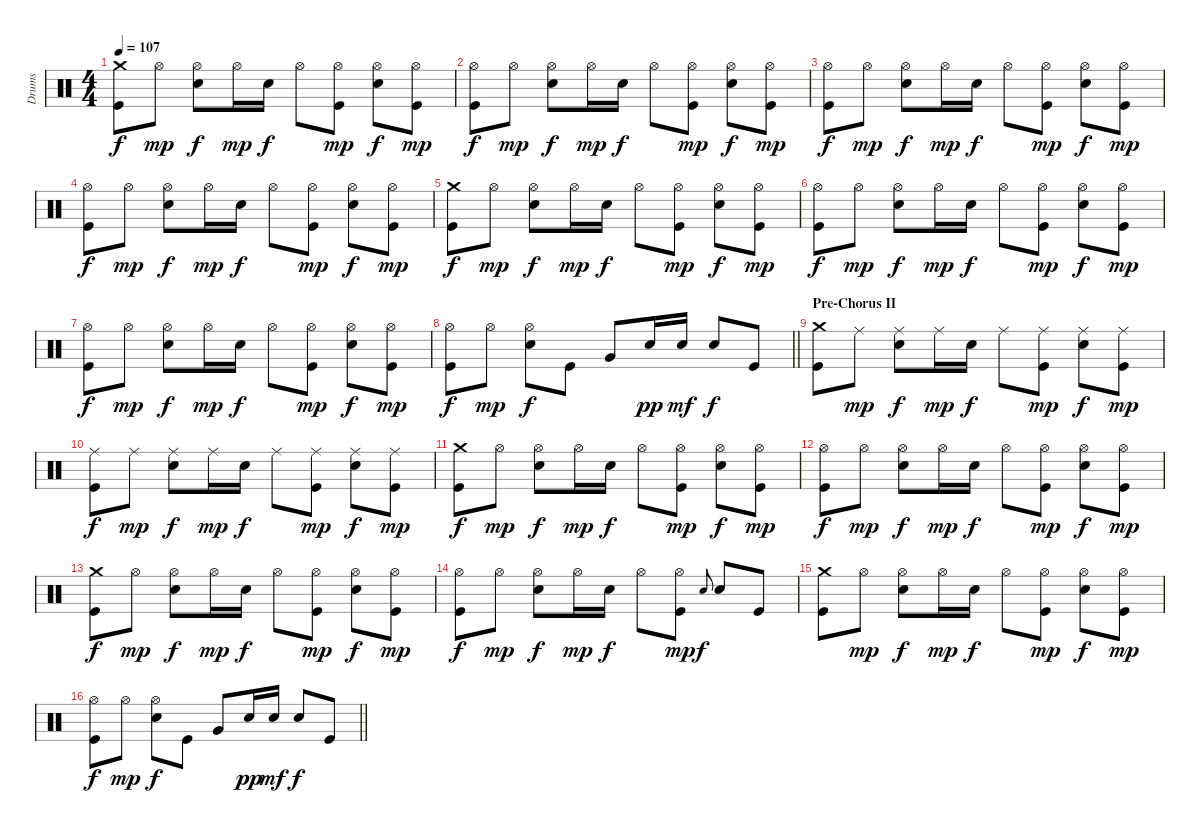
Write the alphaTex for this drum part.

\track ("Drums" "Drums") {instrument percussion}
\staff {score}
\articulation defaults
\ts (4 4)
\tempo 107
\clef neutral
\ks c
("Crash medium (hit)" "Kick (hit)").8{dy f} "Hi-Hat (open)".8{dy mp} ("Hi-Hat (open)" "Electric Snare (hit)").8{dy f} "Hi-Hat (open)".16{dy mp} "Electric Snare (hit)".16{dy f} "Hi-Hat (open)".8 ("Hi-Hat (open)" "Kick (hit)").8{dy mp} ("Hi-Hat (open)" "Electric Snare (hit)").8{dy f} ("Hi-Hat (open)" "Kick (hit)").8{dy mp} |
("Hi-Hat (open)" "Kick (hit)").8{dy f} "Hi-Hat (open)".8{dy mp} ("Hi-Hat (open)" "Electric Snare (hit)").8{dy f} "Hi-Hat (open)".16{dy mp} "Electric Snare (hit)".16{dy f} "Hi-Hat (open)".8 ("Hi-Hat (open)" "Kick (hit)").8{dy mp} ("Hi-Hat (open)" "Electric Snare (hit)").8{dy f} ("Hi-Hat (open)" "Kick (hit)").8{dy mp} |
("Hi-Hat (open)" "Kick (hit)").8{dy f} "Hi-Hat (open)".8{dy mp} ("Hi-Hat (open)" "Electric Snare (hit)").8{dy f} "Hi-Hat (open)".16{dy mp} "Electric Snare (hit)".16{dy f} "Hi-Hat (open)".8 ("Hi-Hat (open)" "Kick (hit)").8{dy mp} ("Hi-Hat (open)" "Electric Snare (hit)").8{dy f} ("Hi-Hat (open)" "Kick (hit)").8{dy mp} |
("Hi-Hat (open)" "Kick (hit)").8{dy f} "Hi-Hat (open)".8{dy mp} ("Hi-Hat (open)" "Electric Snare (hit)").8{dy f} "Hi-Hat (open)".16{dy mp} "Electric Snare (hit)".16{dy f} "Hi-Hat (open)".8 ("Hi-Hat (open)" "Kick (hit)").8{dy mp} ("Hi-Hat (open)" "Electric Snare (hit)").8{dy f} ("Hi-Hat (open)" "Kick (hit)").8{dy mp} |
("Crash medium (hit)" "Kick (hit)").8{dy f} "Hi-Hat (open)".8{dy mp} ("Hi-Hat (open)" "Electric Snare (hit)").8{dy f} "Hi-Hat (open)".16{dy mp} "Electric Snare (hit)".16{dy f} "Hi-Hat (open)".8 ("Hi-Hat (open)" "Kick (hit)").8{dy mp} ("Hi-Hat (open)" "Electric Snare (hit)").8{dy f} ("Hi-Hat (open)" "Kick (hit)").8{dy mp} |
("Hi-Hat (open)" "Kick (hit)").8{dy f} "Hi-Hat (open)".8{dy mp} ("Hi-Hat (open)" "Electric Snare (hit)").8{dy f} "Hi-Hat (open)".16{dy mp} "Electric Snare (hit)".16{dy f} "Hi-Hat (open)".8 ("Hi-Hat (open)" "Kick (hit)").8{dy mp} ("Hi-Hat (open)" "Electric Snare (hit)").8{dy f} ("Hi-Hat (open)" "Kick (hit)").8{dy mp} |
("Hi-Hat (open)" "Kick (hit)").8{dy f} "Hi-Hat (open)".8{dy mp} ("Hi-Hat (open)" "Electric Snare (hit)").8{dy f} "Hi-Hat (open)".16{dy mp} "Electric Snare (hit)".16{dy f} "Hi-Hat (open)".8 ("Hi-Hat (open)" "Kick (hit)").8{dy mp} ("Hi-Hat (open)" "Electric Snare (hit)").8{dy f} ("Hi-Hat (open)" "Kick (hit)").8{dy mp} |
\barLineRight lightlight
("Hi-Hat (open)" "Kick (hit)").8{dy f} "Hi-Hat (open)".8{dy mp} ("Hi-Hat (open)" "Electric Snare (hit)").8{dy f} "Kick (hit)".8 "Very Low Tom (hit)".8 "Electric Snare (hit)".16{dy pp} "Electric Snare (hit)".16{dy mf} "Electric Snare (hit)".8{dy f} "Kick (hit)".8 |
\section ("" "Pre-Chorus II")
("Crash medium (hit)" "Kick (hit)").8 "Ride (middle)".8{dy mp} ("Ride (middle)" "Electric Snare (hit)").8{dy f} "Ride (middle)".16{dy mp} "Electric Snare (hit)".16{dy f} "Ride (middle)".8 ("Ride (middle)" "Kick (hit)").8{dy mp} ("Ride (middle)" "Electric Snare (hit)").8{dy f} ("Ride (middle)" "Kick (hit)").8{dy mp} |
("Ride (middle)" "Kick (hit)").8{dy f} "Ride (middle)".8{dy mp} ("Ride (middle)" "Electric Snare (hit)").8{dy f} "Ride (middle)".16{dy mp} "Electric Snare (hit)".16{dy f} "Ride (middle)".8 ("Ride (middle)" "Kick (hit)").8{dy mp} ("Ride (middle)" "Electric Snare (hit)").8{dy f} ("Ride (middle)" "Kick (hit)").8{dy mp} |
("Crash medium (hit)" "Kick (hit)").8{dy f} "Hi-Hat (open)".8{dy mp} ("Hi-Hat (open)" "Electric Snare (hit)").8{dy f} "Hi-Hat (open)".16{dy mp} "Electric Snare (hit)".16{dy f} "Hi-Hat (open)".8 ("Hi-Hat (open)" "Kick (hit)").8{dy mp} ("Hi-Hat (open)" "Electric Snare (hit)").8{dy f} ("Hi-Hat (open)" "Kick (hit)").8{dy mp} |
("Hi-Hat (open)" "Kick (hit)").8{dy f} "Hi-Hat (open)".8{dy mp} ("Hi-Hat (open)" "Electric Snare (hit)").8{dy f} "Hi-Hat (open)".16{dy mp} "Electric Snare (hit)".16{dy f} "Hi-Hat (open)".8 ("Hi-Hat (open)" "Kick (hit)").8{dy mp} ("Hi-Hat (open)" "Electric Snare (hit)").8{dy f} ("Hi-Hat (open)" "Kick (hit)").8{dy mp} |
("Crash medium (hit)" "Kick (hit)").8{dy f} "Hi-Hat (open)".8{dy mp} ("Hi-Hat (open)" "Electric Snare (hit)").8{dy f} "Hi-Hat (open)".16{dy mp} "Electric Snare (hit)".16{dy f} "Hi-Hat (open)".8 ("Hi-Hat (open)" "Kick (hit)").8{dy mp} ("Hi-Hat (open)" "Electric Snare (hit)").8{dy f} ("Hi-Hat (open)" "Kick (hit)").8{dy mp} |
("Hi-Hat (open)" "Kick (hit)").8{dy f} "Hi-Hat (open)".8{dy mp} ("Hi-Hat (open)" "Electric Snare (hit)").8{dy f} "Hi-Hat (open)".16{dy mp} "Electric Snare (hit)".16{dy f} "Hi-Hat (open)".8 ("Hi-Hat (open)" "Kick (hit)").8{dy mp} "Electric Snare (hit)".8{gr onbeat dy f} "Electric Snare (hit)".8 "Kick (hit)".8 |
("Crash medium (hit)" "Kick (hit)").8 "Hi-Hat (open)".8{dy mp} ("Hi-Hat (open)" "Electric Snare (hit)").8{dy f} "Hi-Hat (open)".16{dy mp} "Electric Snare (hit)".16{dy f} "Hi-Hat (open)".8 ("Hi-Hat (open)" "Kick (hit)").8{dy mp} ("Hi-Hat (open)" "Electric Snare (hit)").8{dy f} ("Hi-Hat (open)" "Kick (hit)").8{dy mp} |
\barLineRight lightlight
("Hi-Hat (open)" "Kick (hit)").8{dy f} "Hi-Hat (open)".8{dy mp} ("Hi-Hat (open)" "Electric Snare (hit)").8{dy f} "Kick (hit)".8 "Very Low Tom (hit)".8 "Electric Snare (hit)".16{dy pp} "Electric Snare (hit)".16{dy mf} "Electric Snare (hit)".8{dy f} "Kick (hit)".8
